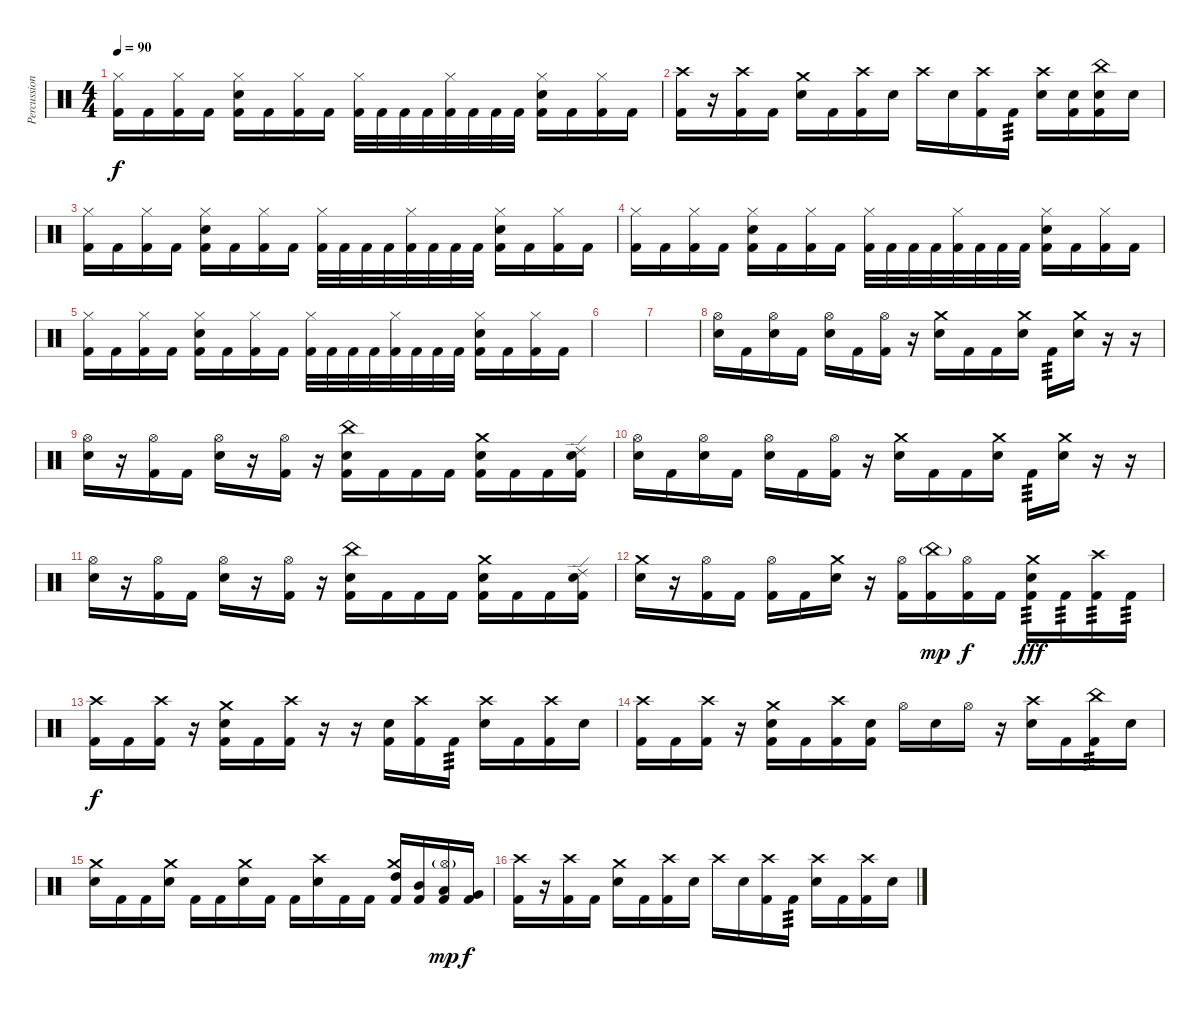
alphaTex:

\track ("Percussion" "Percussion") {instrument percussion}
\staff {score}
\articulation defaults
\ts (4 4)
\tempo 90
\clef neutral
\ks c
("Hi-Hat (closed)" "Kick (hit) 2").16{dy f} "Kick (hit) 2".16 ("Hi-Hat (closed)" "Kick (hit) 2").16 "Kick (hit) 2".16 ("Hi-Hat (closed)" "Electric Snare (hit)" "Kick (hit) 2").16 "Kick (hit) 2".16 ("Hi-Hat (closed)" "Kick (hit) 2").16 "Kick (hit) 2".16 ("Hi-Hat (closed)" "Kick (hit) 2").32 "Kick (hit) 2".32 "Kick (hit) 2".32 "Kick (hit) 2".32 ("Hi-Hat (closed)" "Kick (hit) 2").32 "Kick (hit) 2".32 "Kick (hit) 2".32 "Kick (hit) 2".32 ("Hi-Hat (closed)" "Electric Snare (hit)" "Kick (hit) 2").16 "Kick (hit) 2".16 ("Hi-Hat (closed)" "Kick (hit) 2").16 "Kick (hit) 2".16 |
("Crash high (hit)" "Kick (hit) 2").16 r.16 ("Crash high (hit)" "Kick (hit) 2").16 "Kick (hit) 2".16 ("Crash medium (hit)" "Electric Snare (hit)").16 "Kick (hit) 2".16 ("Crash high (hit)" "Kick (hit) 2").16 "Electric Snare (hit)".16 "Crash high (hit)".16 "Electric Snare (hit)".16 ("Crash high (hit)" "Kick (hit) 2").16 "Kick (hit) 2".16{tp 3} ("Crash high (hit)" "Electric Snare (hit)").16 ("Electric Snare (hit)" "Kick (hit) 2").16 ("China (hit)" "Electric Snare (hit)" "Kick (hit) 2").16 "Electric Snare (hit)".16 |
("Hi-Hat (closed)" "Kick (hit) 2").16 "Kick (hit) 2".16 ("Hi-Hat (closed)" "Kick (hit) 2").16 "Kick (hit) 2".16 ("Hi-Hat (closed)" "Electric Snare (hit)" "Kick (hit) 2").16 "Kick (hit) 2".16 ("Hi-Hat (closed)" "Kick (hit) 2").16 "Kick (hit) 2".16 ("Hi-Hat (closed)" "Kick (hit) 2").32 "Kick (hit) 2".32 "Kick (hit) 2".32 "Kick (hit) 2".32 ("Hi-Hat (closed)" "Kick (hit) 2").32 "Kick (hit) 2".32 "Kick (hit) 2".32 "Kick (hit) 2".32 ("Hi-Hat (closed)" "Electric Snare (hit)" "Kick (hit) 2").16 "Kick (hit) 2".16 ("Hi-Hat (closed)" "Kick (hit) 2").16 "Kick (hit) 2".16 |
("Hi-Hat (closed)" "Kick (hit) 2").16 "Kick (hit) 2".16 ("Hi-Hat (closed)" "Kick (hit) 2").16 "Kick (hit) 2".16 ("Hi-Hat (closed)" "Electric Snare (hit)" "Kick (hit) 2").16 "Kick (hit) 2".16 ("Hi-Hat (closed)" "Kick (hit) 2").16 "Kick (hit) 2".16 ("Hi-Hat (closed)" "Kick (hit) 2").32 "Kick (hit) 2".32 "Kick (hit) 2".32 "Kick (hit) 2".32 ("Hi-Hat (closed)" "Kick (hit) 2").32 "Kick (hit) 2".32 "Kick (hit) 2".32 "Kick (hit) 2".32 ("Hi-Hat (closed)" "Electric Snare (hit)" "Kick (hit) 2").16 "Kick (hit) 2".16 ("Hi-Hat (closed)" "Kick (hit) 2").16 "Kick (hit) 2".16 |
("Hi-Hat (closed)" "Kick (hit) 2").16 "Kick (hit) 2".16 ("Hi-Hat (closed)" "Kick (hit) 2").16 "Kick (hit) 2".16 ("Hi-Hat (closed)" "Electric Snare (hit)" "Kick (hit) 2").16 "Kick (hit) 2".16 ("Hi-Hat (closed)" "Kick (hit) 2").16 "Kick (hit) 2".16 ("Hi-Hat (closed)" "Kick (hit) 2").32 "Kick (hit) 2".32 "Kick (hit) 2".32 "Kick (hit) 2".32 ("Hi-Hat (closed)" "Kick (hit) 2").32 "Kick (hit) 2".32 "Kick (hit) 2".32 "Kick (hit) 2".32 ("Hi-Hat (closed)" "Electric Snare (hit)" "Kick (hit) 2").16 "Kick (hit) 2".16 ("Hi-Hat (closed)" "Kick (hit) 2").16 "Kick (hit) 2".16 |
|
|
("Hi-Hat (open)" "Electric Snare (hit)").16 "Kick (hit) 2".16 ("Hi-Hat (open)" "Electric Snare (hit)").16 "Kick (hit) 2".16 ("Hi-Hat (open)" "Electric Snare (hit)").16 "Kick (hit) 2".16 ("Hi-Hat (open)" "Kick (hit) 2").16 r.16 ("Crash medium (hit)" "Electric Snare (hit)").16 "Kick (hit) 2".16 "Kick (hit) 2".16 ("Crash medium (hit)" "Electric Snare (hit)").16 "Kick (hit) 2".16{tp 3} ("Crash medium (hit)" "Electric Snare (hit)").16 r.16 r.16 |
("Hi-Hat (open)" "Electric Snare (hit)").16 r.16 ("Hi-Hat (open)" "Kick (hit) 2").16 "Kick (hit) 2".16 ("Hi-Hat (open)" "Electric Snare (hit)").16 r.16 ("Hi-Hat (open)" "Kick (hit) 2").16 r.16 ("China (hit)" "Electric Snare (hit)" "Kick (hit) 2").16 "Kick (hit) 2".16 "Kick (hit) 2".16 "Kick (hit) 2".16 ("Crash medium (hit)" "Electric Snare (hit)" "Kick (hit) 2").16 "Kick (hit) 2".16 "Kick (hit) 2".16 ("Ride (edge) 2" "Electric Snare (hit)" "Kick (hit) 2").16 |
("Hi-Hat (open)" "Electric Snare (hit)").16 "Kick (hit) 2".16 ("Hi-Hat (open)" "Electric Snare (hit)").16 "Kick (hit) 2".16 ("Hi-Hat (open)" "Electric Snare (hit)").16 "Kick (hit) 2".16 ("Hi-Hat (open)" "Kick (hit) 2").16 r.16 ("Crash medium (hit)" "Electric Snare (hit)").16 "Kick (hit) 2".16 "Kick (hit) 2".16 ("Crash medium (hit)" "Electric Snare (hit)").16 "Kick (hit) 2".16{tp 3} ("Crash medium (hit)" "Electric Snare (hit)").16 r.16 r.16 |
("Hi-Hat (open)" "Electric Snare (hit)").16 r.16 ("Hi-Hat (open)" "Kick (hit) 2").16 "Kick (hit) 2".16 ("Hi-Hat (open)" "Electric Snare (hit)").16 r.16 ("Hi-Hat (open)" "Kick (hit) 2").16 r.16 ("China (hit)" "Electric Snare (hit)" "Kick (hit) 2").16 "Kick (hit) 2".16 "Kick (hit) 2".16 "Kick (hit) 2".16 ("Crash medium (hit)" "Electric Snare (hit)" "Kick (hit) 2").16 "Kick (hit) 2".16 "Kick (hit) 2".16 ("Ride (edge) 2" "Electric Snare (hit)" "Kick (hit) 2").16 |
("Crash medium (hit)" "Electric Snare (hit)").16 r.16 ("Hi-Hat (open)" "Kick (hit) 2").16 "Kick (hit) 2".16 ("Hi-Hat (open)" "Kick (hit) 2").16 "Kick (hit) 2".16 ("Crash medium (hit)" "Electric Snare (hit)").16 r.16 ("Hi-Hat (open)" "Kick (hit) 2").16 ("China (hit)"{g} "Kick (hit) 2").16{dy mp} ("Hi-Hat (open)" "Kick (hit) 2").16{dy f} "Kick (hit) 2".16 ("Crash medium (hit)" "Electric Snare (hit)" "Kick (hit) 2").16{tp 3 dy fff} "Kick (hit) 2".16{tp 3} ("Crash high (hit)" "Kick (hit) 2").16{tp 3} "Kick (hit) 2".16{tp 3} |
("Crash high (hit)" "Kick (hit) 2").16{dy f} "Kick (hit) 2".16 ("Crash high (hit)" "Kick (hit) 2").16 r.16 ("Crash medium (hit)" "Electric Snare (hit)" "Kick (hit) 2").16 "Kick (hit) 2".16 ("Crash high (hit)" "Kick (hit) 2").16 r.16 r.16 ("Electric Snare (hit)" "Kick (hit) 2").16 ("Crash high (hit)" "Kick (hit) 2").16 "Kick (hit) 2".16{tp 3} ("Crash high (hit)" "Electric Snare (hit)").16 "Kick (hit) 2".16 ("Crash high (hit)" "Kick (hit) 2").16 "Electric Snare (hit)".16 |
("Crash high (hit)" "Kick (hit) 2").16 "Kick (hit) 2".16 ("Crash high (hit)" "Kick (hit) 2").16 r.16 ("Crash medium (hit)" "Electric Snare (hit)" "Kick (hit) 2").16 "Kick (hit) 2".16 ("Crash high (hit)" "Kick (hit) 2").16 ("Electric Snare (hit)" "Kick (hit) 2").16 "Hi-Hat (open)".16 "Electric Snare (hit)".16 "Hi-Hat (open)".16 r.16 ("Crash high (hit)" "Electric Snare (hit)").16 "Kick (hit) 2".16 ("China (hit)" "Kick (hit) 2").16{tp 3} "Electric Snare (hit)".16 |
("Crash medium (hit)" "Electric Snare (hit)").16 "Kick (hit) 2".16 "Kick (hit) 2".16 ("Crash medium (hit)" "Electric Snare (hit)").16 "Kick (hit) 2".16 "Kick (hit) 2".16 ("Crash medium (hit)" "Electric Snare (hit)").16 "Kick (hit) 2".16 "Kick (hit) 2".16 ("Crash high (hit)" "Electric Snare (hit)").16 "Kick (hit) 2".16 "Kick (hit) 2".16 ("Crash medium (hit)" "High Tom (hit)" "Kick (hit) 2").16 ("Mid Tom (hit)" "Kick (hit) 2").16 ("Hi-Hat (open)"{g} "Low Tom (hit)" "Kick (hit) 2").16{dy mp} ("Very Low Tom (hit)" "Kick (hit) 2").16{dy f} |
("Crash high (hit)" "Kick (hit) 2").16 r.16 ("Crash high (hit)" "Kick (hit) 2").16 "Kick (hit) 2".16 ("Crash medium (hit)" "Electric Snare (hit)").16 "Kick (hit) 2".16 ("Crash high (hit)" "Kick (hit) 2").16 "Electric Snare (hit)".16 "Crash high (hit)".16 "Electric Snare (hit)".16 ("Crash high (hit)" "Kick (hit) 2").16 "Kick (hit) 2".16{tp 3} ("Crash high (hit)" "Electric Snare (hit)").16 "Kick (hit) 2".16 ("Crash high (hit)" "Kick (hit) 2").16 "Electric Snare (hit)".16
